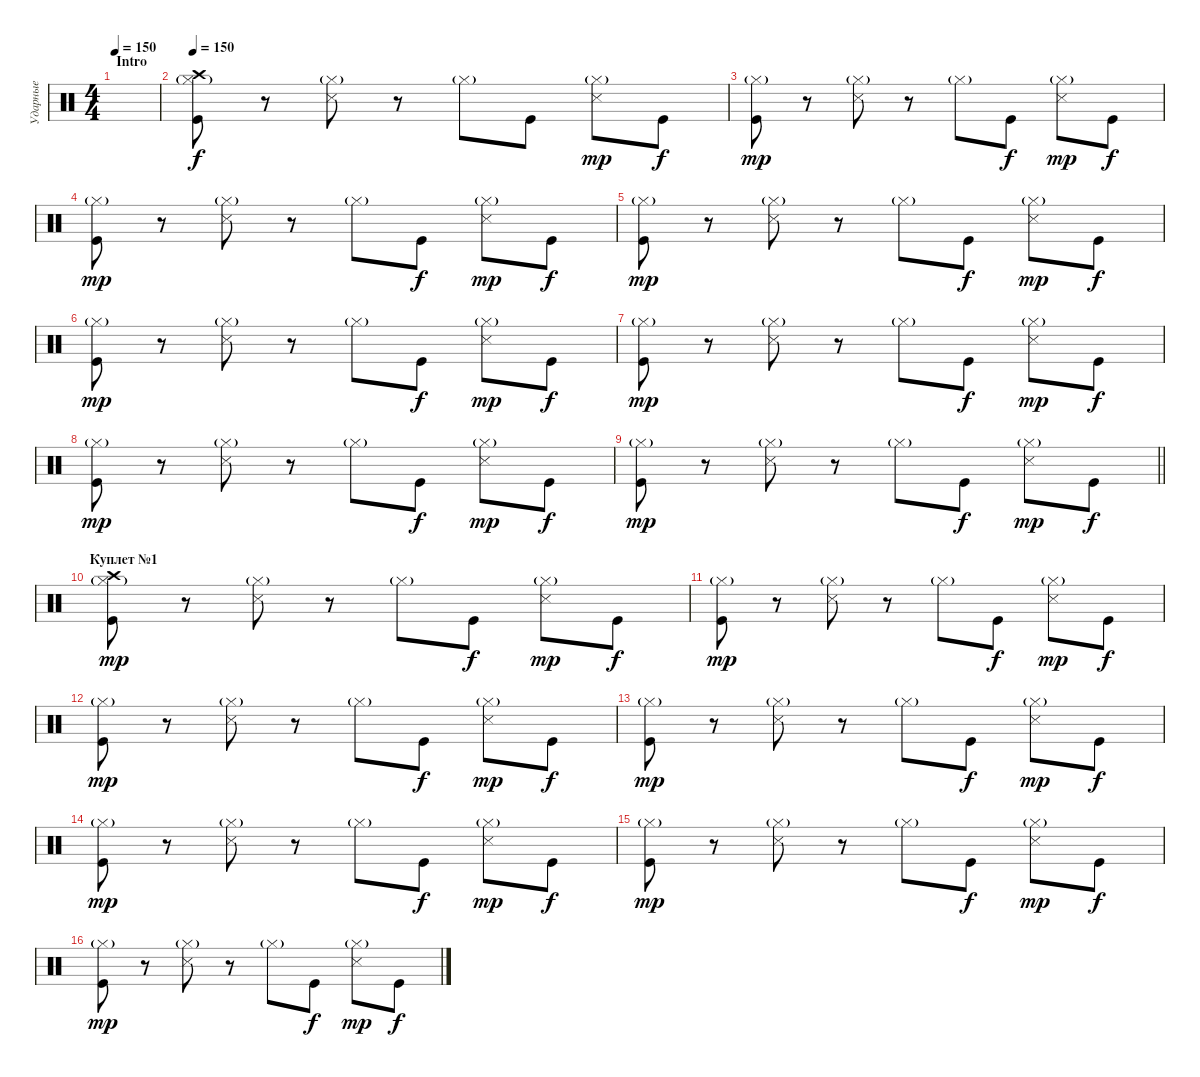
\track ("Ударные" "Ударные") {instrument percussion}
\staff {score}
\articulation defaults
\ts (4 4)
\section ("" "Intro")
\tempo 150
\tempo 110
\tempo 150
\clef neutral
\ks c
|
\tempo 150
("Crash high (hit)" "Hi-Hat (closed)"{g} "Kick (hit)").8 r.8 ("Hi-Hat (closed)"{g} "Snare (side stick) 3").8 r.8 "Hi-Hat (closed)"{g}.8 "Kick (hit)".8{dy f} ("Hi-Hat (closed)"{g} "Snare (side stick) 3").8{dy mp} "Kick (hit)".8{dy f} |
("Hi-Hat (closed)"{g} "Kick (hit)").8{dy mp} r.8 ("Hi-Hat (closed)"{g} "Snare (side stick) 3").8 r.8 "Hi-Hat (closed)"{g}.8 "Kick (hit)".8{dy f} ("Hi-Hat (closed)"{g} "Snare (side stick) 3").8{dy mp} "Kick (hit)".8{dy f} |
("Hi-Hat (closed)"{g} "Kick (hit)").8{dy mp} r.8 ("Hi-Hat (closed)"{g} "Snare (side stick) 3").8 r.8 "Hi-Hat (closed)"{g}.8 "Kick (hit)".8{dy f} ("Hi-Hat (closed)"{g} "Snare (side stick) 3").8{dy mp} "Kick (hit)".8{dy f} |
("Hi-Hat (closed)"{g} "Kick (hit)").8{dy mp} r.8 ("Hi-Hat (closed)"{g} "Snare (side stick) 3").8 r.8 "Hi-Hat (closed)"{g}.8 "Kick (hit)".8{dy f} ("Hi-Hat (closed)"{g} "Snare (side stick) 3").8{dy mp} "Kick (hit)".8{dy f} |
("Hi-Hat (closed)"{g} "Kick (hit)").8{dy mp} r.8 ("Hi-Hat (closed)"{g} "Snare (side stick) 3").8 r.8 "Hi-Hat (closed)"{g}.8 "Kick (hit)".8{dy f} ("Hi-Hat (closed)"{g} "Snare (side stick) 3").8{dy mp} "Kick (hit)".8{dy f} |
("Hi-Hat (closed)"{g} "Kick (hit)").8{dy mp} r.8 ("Hi-Hat (closed)"{g} "Snare (side stick) 3").8 r.8 "Hi-Hat (closed)"{g}.8 "Kick (hit)".8{dy f} ("Hi-Hat (closed)"{g} "Snare (side stick) 3").8{dy mp} "Kick (hit)".8{dy f} |
("Hi-Hat (closed)"{g} "Kick (hit)").8{dy mp} r.8 ("Hi-Hat (closed)"{g} "Snare (side stick) 3").8 r.8 "Hi-Hat (closed)"{g}.8 "Kick (hit)".8{dy f} ("Hi-Hat (closed)"{g} "Snare (side stick) 3").8{dy mp} "Kick (hit)".8{dy f} |
\barLineRight lightlight
("Hi-Hat (closed)"{g} "Kick (hit)").8{dy mp} r.8 ("Hi-Hat (closed)"{g} "Snare (side stick) 3").8 r.8 "Hi-Hat (closed)"{g}.8 "Kick (hit)".8{dy f} ("Hi-Hat (closed)"{g} "Snare (side stick) 3").8{dy mp} "Kick (hit)".8{dy f} |
\section ("" "Куплет №1")
("Crash high (hit)" "Hi-Hat (closed)"{g} "Kick (hit)").8{dy mp} r.8 ("Hi-Hat (closed)"{g} "Snare (side stick) 3").8 r.8 "Hi-Hat (closed)"{g}.8 "Kick (hit)".8{dy f} ("Hi-Hat (closed)"{g} "Snare (side stick) 3").8{dy mp} "Kick (hit)".8{dy f} |
("Hi-Hat (closed)"{g} "Kick (hit)").8{dy mp} r.8 ("Hi-Hat (closed)"{g} "Snare (side stick) 3").8 r.8 "Hi-Hat (closed)"{g}.8 "Kick (hit)".8{dy f} ("Hi-Hat (closed)"{g} "Snare (side stick) 3").8{dy mp} "Kick (hit)".8{dy f} |
("Hi-Hat (closed)"{g} "Kick (hit)").8{dy mp} r.8 ("Hi-Hat (closed)"{g} "Snare (side stick) 3").8 r.8 "Hi-Hat (closed)"{g}.8 "Kick (hit)".8{dy f} ("Hi-Hat (closed)"{g} "Snare (side stick) 3").8{dy mp} "Kick (hit)".8{dy f} |
("Hi-Hat (closed)"{g} "Kick (hit)").8{dy mp} r.8 ("Hi-Hat (closed)"{g} "Snare (side stick) 3").8 r.8 "Hi-Hat (closed)"{g}.8 "Kick (hit)".8{dy f} ("Hi-Hat (closed)"{g} "Snare (side stick) 3").8{dy mp} "Kick (hit)".8{dy f} |
("Hi-Hat (closed)"{g} "Kick (hit)").8{dy mp} r.8 ("Hi-Hat (closed)"{g} "Snare (side stick) 3").8 r.8 "Hi-Hat (closed)"{g}.8 "Kick (hit)".8{dy f} ("Hi-Hat (closed)"{g} "Snare (side stick) 3").8{dy mp} "Kick (hit)".8{dy f} |
("Hi-Hat (closed)"{g} "Kick (hit)").8{dy mp} r.8 ("Hi-Hat (closed)"{g} "Snare (side stick) 3").8 r.8 "Hi-Hat (closed)"{g}.8 "Kick (hit)".8{dy f} ("Hi-Hat (closed)"{g} "Snare (side stick) 3").8{dy mp} "Kick (hit)".8{dy f} |
("Hi-Hat (closed)"{g} "Kick (hit)").8{dy mp} r.8 ("Hi-Hat (closed)"{g} "Snare (side stick) 3").8 r.8 "Hi-Hat (closed)"{g}.8 "Kick (hit)".8{dy f} ("Hi-Hat (closed)"{g} "Snare (side stick) 3").8{dy mp} "Kick (hit)".8{dy f}
